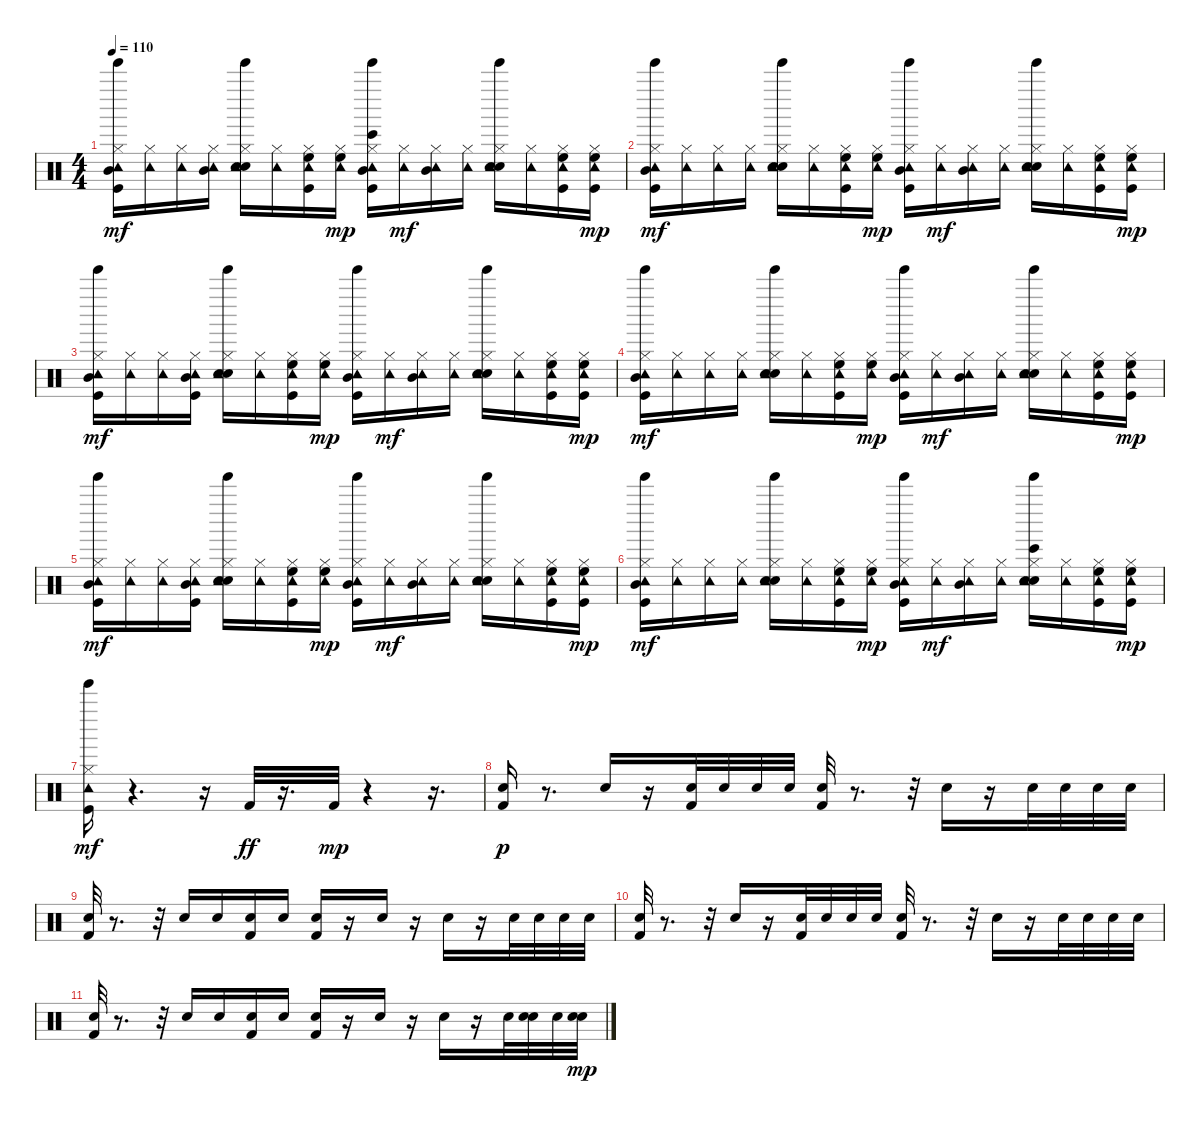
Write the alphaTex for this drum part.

\track "" {instrument percussion}
\staff {score}
\articulation defaults
\ts (4 4)
\tempo 110
\clef neutral
\ks c
("Tinkle Bell (hit)" "Kick (hit)" "Hi-Hat (closed)" "Tambourine (hit)" "Mid Tom (hit)").16{dy mf} ("Hi-Hat (closed)" "Tambourine (hit)").16 ("Hi-Hat (closed)" "Tambourine (hit)").16 ("Hi-Hat (closed)" "Tambourine (hit)" "Mid Tom (hit)").16 ("Tinkle Bell (hit)" "Electric Snare (hit)" "Hi-Hat (closed)" "Tambourine (hit)" "Hand Clap (hit)").16 ("Hi-Hat (closed)" "Tambourine (hit)").16 ("Kick (hit)" "Hi-Hat (closed)" "Tambourine (hit)" "High Floor Tom (hit)").16 ("Hi-Hat (closed)" "Tambourine (hit)" "High Floor Tom (hit)").16{dy mp} ("Tinkle Bell (hit)" "Bongo High (hit)" "Kick (hit)" "Hi-Hat (closed)" "Tambourine (hit)" "Mid Tom (hit)").16 ("Hi-Hat (closed)" "Tambourine (hit)").16{dy mf} ("Hi-Hat (closed)" "Tambourine (hit)" "Mid Tom (hit)").16 ("Hi-Hat (closed)" "Tambourine (hit)").16 ("Tinkle Bell (hit)" "Electric Snare (hit)" "Hi-Hat (closed)" "Tambourine (hit)" "Hand Clap (hit)").16 ("Hi-Hat (closed)" "Tambourine (hit)").16 ("Kick (hit)" "Hi-Hat (closed)" "Tambourine (hit)" "High Floor Tom (hit)").16 ("Kick (hit)" "Hi-Hat (closed)" "Tambourine (hit)" "High Floor Tom (hit)").16{dy mp} |
("Tinkle Bell (hit)" "Kick (hit)" "Hi-Hat (closed)" "Tambourine (hit)" "Mid Tom (hit)").16{dy mf} ("Hi-Hat (closed)" "Tambourine (hit)").16 ("Hi-Hat (closed)" "Tambourine (hit)").16 ("Hi-Hat (closed)" "Tambourine (hit)").16 ("Tinkle Bell (hit)" "Electric Snare (hit)" "Hi-Hat (closed)" "Tambourine (hit)" "Hand Clap (hit)").16 ("Hi-Hat (closed)" "Tambourine (hit)").16 ("Kick (hit)" "Hi-Hat (closed)" "Tambourine (hit)" "High Floor Tom (hit)").16 ("Hi-Hat (closed)" "Tambourine (hit)" "High Floor Tom (hit)").16{dy mp} ("Tinkle Bell (hit)" "Kick (hit)" "Hi-Hat (closed)" "Tambourine (hit)" "Mid Tom (hit)").16 ("Hi-Hat (closed)" "Tambourine (hit)").16{dy mf} ("Hi-Hat (closed)" "Tambourine (hit)" "Mid Tom (hit)").16 ("Hi-Hat (closed)" "Tambourine (hit)").16 ("Tinkle Bell (hit)" "Electric Snare (hit)" "Hi-Hat (closed)" "Tambourine (hit)" "Hand Clap (hit)").16 ("Hi-Hat (closed)" "Tambourine (hit)").16 ("Kick (hit)" "Hi-Hat (closed)" "Tambourine (hit)" "High Floor Tom (hit)").16 ("Kick (hit)" "Hi-Hat (closed)" "Tambourine (hit)" "High Floor Tom (hit)").16{dy mp} |
("Tinkle Bell (hit)" "Kick (hit)" "Hi-Hat (closed)" "Tambourine (hit)" "Mid Tom (hit)").16{dy mf} ("Hi-Hat (closed)" "Tambourine (hit)").16 ("Hi-Hat (closed)" "Tambourine (hit)").16 ("Kick (hit)" "Hi-Hat (closed)" "Tambourine (hit)" "Mid Tom (hit)").16 ("Tinkle Bell (hit)" "Electric Snare (hit)" "Hi-Hat (closed)" "Tambourine (hit)" "Hand Clap (hit)").16 ("Hi-Hat (closed)" "Tambourine (hit)").16 ("Kick (hit)" "Hi-Hat (closed)" "Tambourine (hit)" "High Floor Tom (hit)").16 ("Hi-Hat (closed)" "Tambourine (hit)" "High Floor Tom (hit)").16{dy mp} ("Tinkle Bell (hit)" "Kick (hit)" "Hi-Hat (closed)" "Tambourine (hit)" "Mid Tom (hit)").16 ("Hi-Hat (closed)" "Tambourine (hit)").16{dy mf} ("Hi-Hat (closed)" "Tambourine (hit)" "Mid Tom (hit)").16 ("Hi-Hat (closed)" "Tambourine (hit)").16 ("Tinkle Bell (hit)" "Electric Snare (hit)" "Hi-Hat (closed)" "Tambourine (hit)" "Hand Clap (hit)").16 ("Hi-Hat (closed)" "Tambourine (hit)").16 ("Kick (hit)" "Hi-Hat (closed)" "Tambourine (hit)" "High Floor Tom (hit)").16 ("Kick (hit)" "Hi-Hat (closed)" "Tambourine (hit)" "High Floor Tom (hit)").16{dy mp} |
("Tinkle Bell (hit)" "Kick (hit)" "Hi-Hat (closed)" "Tambourine (hit)" "Mid Tom (hit)").16{dy mf} ("Hi-Hat (closed)" "Tambourine (hit)").16 ("Hi-Hat (closed)" "Tambourine (hit)").16 ("Hi-Hat (closed)" "Tambourine (hit)").16 ("Tinkle Bell (hit)" "Electric Snare (hit)" "Hi-Hat (closed)" "Tambourine (hit)" "Hand Clap (hit)").16 ("Hi-Hat (closed)" "Tambourine (hit)").16 ("Kick (hit)" "Hi-Hat (closed)" "Tambourine (hit)" "High Floor Tom (hit)").16 ("Hi-Hat (closed)" "Tambourine (hit)" "High Floor Tom (hit)").16{dy mp} ("Tinkle Bell (hit)" "Kick (hit)" "Hi-Hat (closed)" "Tambourine (hit)" "Mid Tom (hit)").16 ("Hi-Hat (closed)" "Tambourine (hit)").16{dy mf} ("Hi-Hat (closed)" "Tambourine (hit)" "Mid Tom (hit)").16 ("Hi-Hat (closed)" "Tambourine (hit)").16 ("Tinkle Bell (hit)" "Electric Snare (hit)" "Hi-Hat (closed)" "Tambourine (hit)" "Hand Clap (hit)").16 ("Hi-Hat (closed)" "Tambourine (hit)").16 ("Kick (hit)" "Hi-Hat (closed)" "Tambourine (hit)" "High Floor Tom (hit)").16 ("Kick (hit)" "Hi-Hat (closed)" "Tambourine (hit)" "High Floor Tom (hit)").16{dy mp} |
("Tinkle Bell (hit)" "Kick (hit)" "Hi-Hat (closed)" "Tambourine (hit)" "Mid Tom (hit)").16{dy mf} ("Hi-Hat (closed)" "Tambourine (hit)").16 ("Hi-Hat (closed)" "Tambourine (hit)").16 ("Kick (hit)" "Hi-Hat (closed)" "Tambourine (hit)" "Mid Tom (hit)").16 ("Tinkle Bell (hit)" "Electric Snare (hit)" "Hi-Hat (closed)" "Tambourine (hit)" "Hand Clap (hit)").16 ("Hi-Hat (closed)" "Tambourine (hit)").16 ("Kick (hit)" "Hi-Hat (closed)" "Tambourine (hit)" "High Floor Tom (hit)").16 ("Hi-Hat (closed)" "Tambourine (hit)" "High Floor Tom (hit)").16{dy mp} ("Tinkle Bell (hit)" "Kick (hit)" "Hi-Hat (closed)" "Tambourine (hit)" "Mid Tom (hit)").16 ("Hi-Hat (closed)" "Tambourine (hit)").16{dy mf} ("Hi-Hat (closed)" "Tambourine (hit)" "Mid Tom (hit)").16 ("Hi-Hat (closed)" "Tambourine (hit)").16 ("Tinkle Bell (hit)" "Electric Snare (hit)" "Hi-Hat (closed)" "Tambourine (hit)" "Hand Clap (hit)").16 ("Hi-Hat (closed)" "Tambourine (hit)").16 ("Kick (hit)" "Hi-Hat (closed)" "Tambourine (hit)" "High Floor Tom (hit)").16 ("Kick (hit)" "Hi-Hat (closed)" "Tambourine (hit)" "High Floor Tom (hit)").16{dy mp} |
("Tinkle Bell (hit)" "Kick (hit)" "Hi-Hat (closed)" "Tambourine (hit)" "Mid Tom (hit)").16{dy mf} ("Hi-Hat (closed)" "Tambourine (hit)").16 ("Hi-Hat (closed)" "Tambourine (hit)").16 ("Hi-Hat (closed)" "Tambourine (hit)").16 ("Tinkle Bell (hit)" "Electric Snare (hit)" "Hi-Hat (closed)" "Tambourine (hit)" "Hand Clap (hit)").16 ("Hi-Hat (closed)" "Tambourine (hit)").16 ("Kick (hit)" "Hi-Hat (closed)" "Tambourine (hit)" "High Floor Tom (hit)").16 ("Hi-Hat (closed)" "Tambourine (hit)" "High Floor Tom (hit)").16{dy mp} ("Tinkle Bell (hit)" "Kick (hit)" "Hi-Hat (closed)" "Tambourine (hit)" "Mid Tom (hit)").16 ("Hi-Hat (closed)" "Tambourine (hit)").16{dy mf} ("Hi-Hat (closed)" "Tambourine (hit)" "Mid Tom (hit)").16 ("Hi-Hat (closed)" "Tambourine (hit)").16 ("Tinkle Bell (hit)" "Bongo High (hit)" "Electric Snare (hit)" "Hi-Hat (closed)" "Tambourine (hit)" "Hand Clap (hit)").16 ("Hi-Hat (closed)" "Tambourine (hit)").16 ("Kick (hit)" "Hi-Hat (closed)" "Tambourine (hit)" "High Floor Tom (hit)").16 ("Kick (hit)" "Hi-Hat (closed)" "Tambourine (hit)" "High Floor Tom (hit)").16{dy mp} |
("Tinkle Bell (hit)" "Kick (hit)" "Hi-Hat (closed)" "Tambourine (hit)").16{dy mf} r.4{d} r.16 "Kick (hit) 2".32{dy ff} r.16{d} "Kick (hit) 2".32{dy mp} r.4 r.16{d} |
("Kick (hit) 2" "Snare (hit) 2").16{dy p} r.8{d} "Snare (hit) 2".16 r.16 ("Kick (hit) 2" "Snare (hit) 2").32 "Snare (hit) 2".32 "Snare (hit) 2".32 "Snare (hit) 2".32 ("Kick (hit) 2" "Snare (hit) 2").32 r.8{d} r.32 "Snare (hit) 2".16 r.16 "Snare (hit) 2".32 "Snare (hit) 2".32 "Snare (hit) 2".32 "Snare (hit) 2".32 |
("Kick (hit) 2" "Snare (hit) 2").32 r.8{d} r.32 "Snare (hit) 2".16 "Snare (hit) 2".16 ("Kick (hit) 2" "Snare (hit) 2").16 "Snare (hit) 2".16 ("Kick (hit) 2" "Snare (hit) 2").16 r.16 "Snare (hit) 2".16 r.16 "Snare (hit) 2".16 r.16 "Snare (hit) 2".32 "Snare (hit) 2".32 "Snare (hit) 2".32 "Snare (hit) 2".32 |
("Kick (hit) 2" "Snare (hit) 2").32 r.8{d} r.32 "Snare (hit) 2".16 r.16 ("Kick (hit) 2" "Snare (hit) 2").32 "Snare (hit) 2".32 "Snare (hit) 2".32 "Snare (hit) 2".32 ("Kick (hit) 2" "Snare (hit) 2").32 r.8{d} r.32 "Snare (hit) 2".16 r.16 "Snare (hit) 2".32 "Snare (hit) 2".32 "Snare (hit) 2".32 "Snare (hit) 2".32 |
("Kick (hit) 2" "Snare (hit) 2").32 r.8{d} r.32 "Snare (hit) 2".16 "Snare (hit) 2".16 ("Kick (hit) 2" "Snare (hit) 2").16 "Snare (hit) 2".16 ("Kick (hit) 2" "Snare (hit) 2").16 r.16 "Snare (hit) 2".16 r.16 "Snare (hit) 2".16 r.16 "Snare (hit) 2".32 ("Snare (hit) 2" "Snare (hit) 2").32 "Snare (hit) 2".32 ("Snare (hit) 2" "Snare (hit) 2").32{dy mp}
